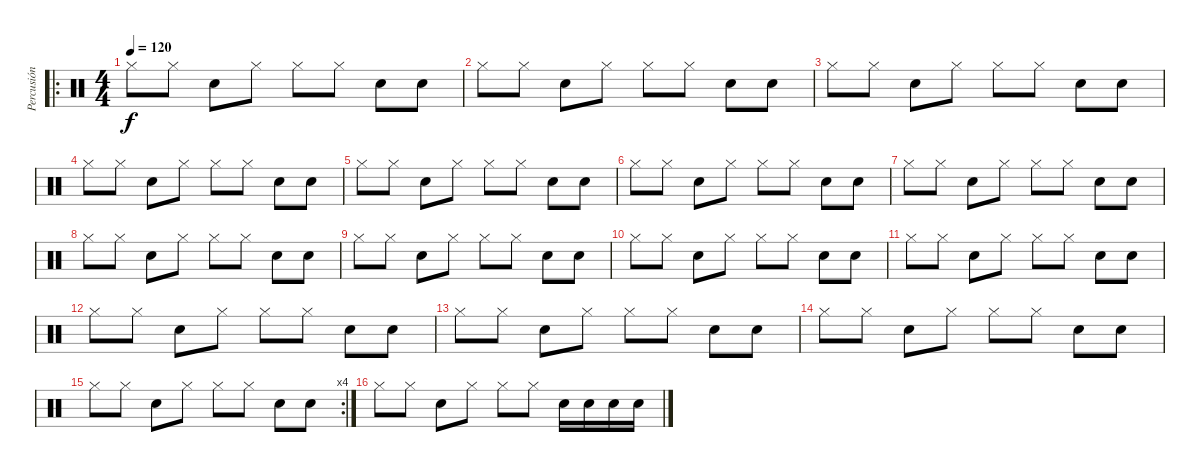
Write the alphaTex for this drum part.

\track ("Percusión" "Percusión") {instrument percussion}
\staff {score}
\articulation defaults
\ro
\ts (4 4)
\tempo 120
\clef neutral
\ks c "Hi-Hat (closed)".8{dy f} "Hi-Hat (closed)".8 "Snare (hit) 2".8 "Hi-Hat (closed)".8 "Hi-Hat (closed)".8 "Hi-Hat (closed)".8 "Snare (hit) 2".8 "Snare (hit) 2".8
|
"Hi-Hat (closed)".8 "Hi-Hat (closed)".8 "Snare (hit) 2".8 "Hi-Hat (closed)".8 "Hi-Hat (closed)".8 "Hi-Hat (closed)".8 "Snare (hit) 2".8 "Snare (hit) 2".8 |
"Hi-Hat (closed)".8 "Hi-Hat (closed)".8 "Snare (hit) 2".8 "Hi-Hat (closed)".8 "Hi-Hat (closed)".8 "Hi-Hat (closed)".8 "Snare (hit) 2".8 "Snare (hit) 2".8 |
"Hi-Hat (closed)".8 "Hi-Hat (closed)".8 "Snare (hit) 2".8 "Hi-Hat (closed)".8 "Hi-Hat (closed)".8 "Hi-Hat (closed)".8 "Snare (hit) 2".8 "Snare (hit) 2".8 |
"Hi-Hat (closed)".8 "Hi-Hat (closed)".8 "Snare (hit) 2".8 "Hi-Hat (closed)".8 "Hi-Hat (closed)".8 "Hi-Hat (closed)".8 "Snare (hit) 2".8 "Snare (hit) 2".8 |
"Hi-Hat (closed)".8 "Hi-Hat (closed)".8 "Snare (hit) 2".8 "Hi-Hat (closed)".8 "Hi-Hat (closed)".8 "Hi-Hat (closed)".8 "Snare (hit) 2".8 "Snare (hit) 2".8 |
"Hi-Hat (closed)".8 "Hi-Hat (closed)".8 "Snare (hit) 2".8 "Hi-Hat (closed)".8 "Hi-Hat (closed)".8 "Hi-Hat (closed)".8 "Snare (hit) 2".8 "Snare (hit) 2".8 |
"Hi-Hat (closed)".8 "Hi-Hat (closed)".8 "Snare (hit) 2".8 "Hi-Hat (closed)".8 "Hi-Hat (closed)".8 "Hi-Hat (closed)".8 "Snare (hit) 2".8 "Snare (hit) 2".8 |
"Hi-Hat (closed)".8 "Hi-Hat (closed)".8 "Snare (hit) 2".8 "Hi-Hat (closed)".8 "Hi-Hat (closed)".8 "Hi-Hat (closed)".8 "Snare (hit) 2".8 "Snare (hit) 2".8 |
"Hi-Hat (closed)".8 "Hi-Hat (closed)".8 "Snare (hit) 2".8 "Hi-Hat (closed)".8 "Hi-Hat (closed)".8 "Hi-Hat (closed)".8 "Snare (hit) 2".8 "Snare (hit) 2".8 |
"Hi-Hat (closed)".8 "Hi-Hat (closed)".8 "Snare (hit) 2".8 "Hi-Hat (closed)".8 "Hi-Hat (closed)".8 "Hi-Hat (closed)".8 "Snare (hit) 2".8 "Snare (hit) 2".8 |
"Hi-Hat (closed)".8 "Hi-Hat (closed)".8 "Snare (hit) 2".8 "Hi-Hat (closed)".8 "Hi-Hat (closed)".8 "Hi-Hat (closed)".8 "Snare (hit) 2".8 "Snare (hit) 2".8 |
"Hi-Hat (closed)".8 "Hi-Hat (closed)".8 "Snare (hit) 2".8 "Hi-Hat (closed)".8 "Hi-Hat (closed)".8 "Hi-Hat (closed)".8 "Snare (hit) 2".8 "Snare (hit) 2".8 |
"Hi-Hat (closed)".8 "Hi-Hat (closed)".8 "Snare (hit) 2".8 "Hi-Hat (closed)".8 "Hi-Hat (closed)".8 "Hi-Hat (closed)".8 "Snare (hit) 2".8 "Snare (hit) 2".8 |
\rc 4 "Hi-Hat (closed)".8 "Hi-Hat (closed)".8 "Snare (hit) 2".8 "Hi-Hat (closed)".8 "Hi-Hat (closed)".8 "Hi-Hat (closed)".8 "Snare (hit) 2".8 "Snare (hit) 2".8
|
"Hi-Hat (closed)".8 "Hi-Hat (closed)".8 "Snare (hit) 2".8 "Hi-Hat (closed)".8 "Hi-Hat (closed)".8 "Hi-Hat (closed)".8 "Snare (hit) 2".16 "Snare (hit) 2".16 "Snare (hit) 2".16 "Snare (hit) 2".16
